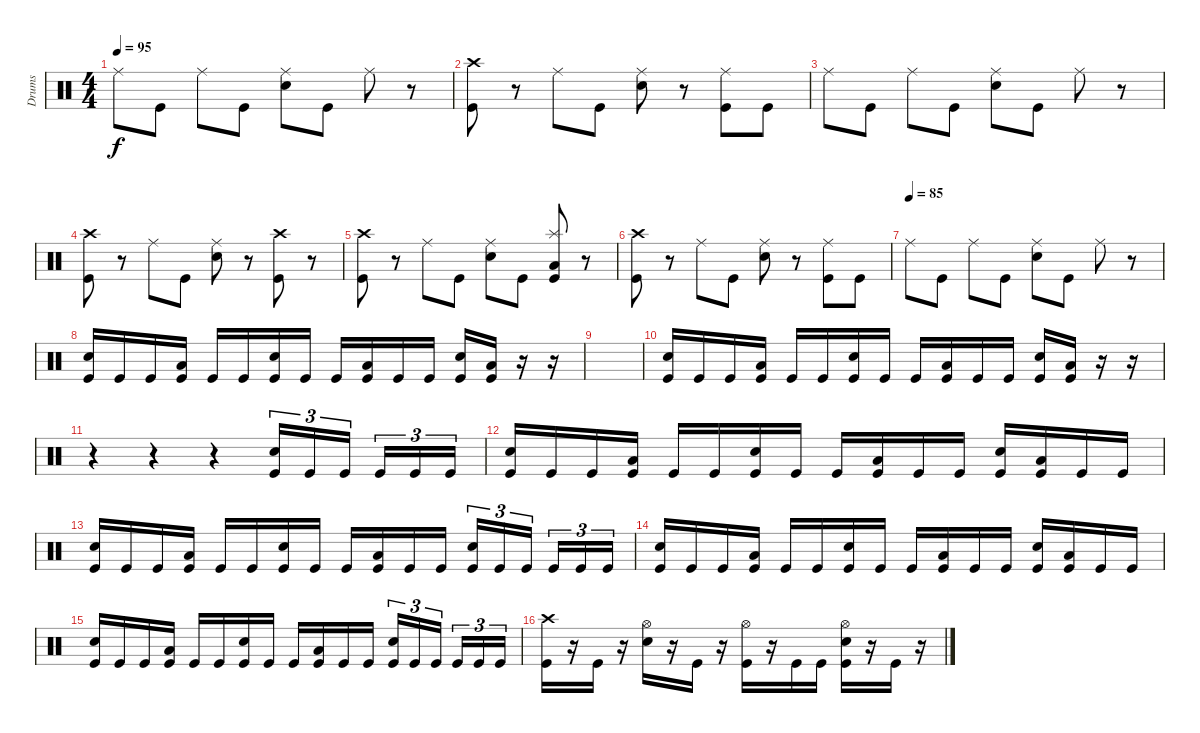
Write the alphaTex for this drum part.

\track ("Drums" "Drums") {instrument percussion}
\staff {score}
\articulation defaults
\ts (4 4)
\tempo 95
\clef neutral
\ks c "Ride (middle)".8{dy f} "Kick (hit)".8 "Ride (middle)".8 "Kick (hit)".8
("Ride (middle)" "Snare (hit) 2").8 "Kick (hit)".8 "Ride (middle)".8 r.8 |
("Crash high (hit)" "Kick (hit)").8 r.8 "Ride (middle)".8 "Kick (hit)".8 ("Ride (middle)" "Snare (hit) 2").8 r.8 ("Ride (middle)" "Kick (hit)").8 "Kick (hit)".8 |
"Ride (middle)".8 "Kick (hit)".8 "Ride (middle)".8 "Kick (hit)".8 ("Ride (middle)" "Snare (hit) 2").8 "Kick (hit)".8 "Ride (middle)".8 r.8 |
("Crash high (hit)" "Kick (hit)").8 r.8 "Ride (middle)".8 "Kick (hit)".8 ("Ride (middle)" "Snare (hit) 2").8 r.8 ("Crash high (hit)" "Kick (hit)").8 r.8 |
("Crash high (hit)" "Kick (hit)").8 r.8 "Ride (middle)".8 "Kick (hit)".8 ("Ride (middle)" "Snare (hit) 2").8 "Kick (hit)".8 ("Splash (hit)" "Low Floor Tom (hit)" "Kick (hit)").8 r.8 |
("Crash high (hit)" "Kick (hit)").8 r.8 "Ride (middle)".8 "Kick (hit)".8 ("Ride (middle)" "Snare (hit) 2").8 r.8 ("Ride (middle)" "Kick (hit)").8 "Kick (hit)".8 |
\tempo (85)
"Ride (middle)".8 "Kick (hit)".8 "Ride (middle)".8 "Kick (hit)".8 ("Ride (middle)" "Snare (hit) 2").8 "Kick (hit)".8 "Ride (middle)".8 r.8 |
("Snare (hit) 2" "Kick (hit)").16 "Kick (hit)".16 "Kick (hit)".16 ("Low Floor Tom (hit)" "Kick (hit)").16 "Kick (hit)".16 "Kick (hit)".16 ("Snare (hit) 2" "Kick (hit)").16 "Kick (hit)".16 "Kick (hit)".16 ("Low Floor Tom (hit)" "Kick (hit)").16 "Kick (hit)".16 "Kick (hit)".16 ("Snare (hit) 2" "Kick (hit)").16 ("Low Floor Tom (hit)" "Kick (hit)").16 r.16 r.16 |
|
("Snare (hit) 2" "Kick (hit)").16 "Kick (hit)".16 "Kick (hit)".16 ("Low Floor Tom (hit)" "Kick (hit)").16 "Kick (hit)".16 "Kick (hit)".16 ("Snare (hit) 2" "Kick (hit)").16 "Kick (hit)".16 "Kick (hit)".16 ("Low Floor Tom (hit)" "Kick (hit)").16 "Kick (hit)".16 "Kick (hit)".16 ("Snare (hit) 2" "Kick (hit)").16 ("Low Floor Tom (hit)" "Kick (hit)").16 r.16 r.16 |
r.4 r.4 r.4 ("Snare (hit) 2" "Kick (hit)").16{tu (3 2)} "Kick (hit)".16{tu (3 2)} "Kick (hit)".16{tu (3 2)} "Kick (hit)".16{tu (3 2)} "Kick (hit)".16{tu (3 2)} "Kick (hit)".16{tu (3 2)} |
("Snare (hit) 2" "Kick (hit)").16 "Kick (hit)".16 "Kick (hit)".16 ("Low Floor Tom (hit)" "Kick (hit)").16 "Kick (hit)".16 "Kick (hit)".16 ("Snare (hit) 2" "Kick (hit)").16 "Kick (hit)".16 "Kick (hit)".16 ("Low Floor Tom (hit)" "Kick (hit)").16 "Kick (hit)".16 "Kick (hit)".16 ("Snare (hit) 2" "Kick (hit)").16 ("Low Floor Tom (hit)" "Kick (hit)").16 "Kick (hit)".16 "Kick (hit)".16 |
("Snare (hit) 2" "Kick (hit)").16 "Kick (hit)".16 "Kick (hit)".16 ("Low Floor Tom (hit)" "Kick (hit)").16 "Kick (hit)".16 "Kick (hit)".16 ("Snare (hit) 2" "Kick (hit)").16 "Kick (hit)".16 "Kick (hit)".16 ("Low Floor Tom (hit)" "Kick (hit)").16 "Kick (hit)".16 "Kick (hit)".16 ("Snare (hit) 2" "Kick (hit)").16{tu (3 2)} "Kick (hit)".16{tu (3 2)} "Kick (hit)".16{tu (3 2)} "Kick (hit)".16{tu (3 2)} "Kick (hit)".16{tu (3 2)} "Kick (hit)".16{tu (3 2)} |
("Snare (hit) 2" "Kick (hit)").16 "Kick (hit)".16 "Kick (hit)".16 ("Low Floor Tom (hit)" "Kick (hit)").16 "Kick (hit)".16 "Kick (hit)".16 ("Snare (hit) 2" "Kick (hit)").16 "Kick (hit)".16 "Kick (hit)".16 ("Low Floor Tom (hit)" "Kick (hit)").16 "Kick (hit)".16 "Kick (hit)".16 ("Snare (hit) 2" "Kick (hit)").16 ("Low Floor Tom (hit)" "Kick (hit)").16 "Kick (hit)".16 "Kick (hit)".16 |
("Snare (hit) 2" "Kick (hit)").16 "Kick (hit)".16 "Kick (hit)".16 ("Low Floor Tom (hit)" "Kick (hit)").16 "Kick (hit)".16 "Kick (hit)".16 ("Snare (hit) 2" "Kick (hit)").16 "Kick (hit)".16 "Kick (hit)".16 ("Low Floor Tom (hit)" "Kick (hit)").16 "Kick (hit)".16 "Kick (hit)".16 ("Snare (hit) 2" "Kick (hit)").16{tu (3 2)} "Kick (hit)".16{tu (3 2)} "Kick (hit)".16{tu (3 2)} "Kick (hit)".16{tu (3 2)} "Kick (hit)".16{tu (3 2)} "Kick (hit)".16{tu (3 2)} |
("Crash high (hit)" "Kick (hit)").16 r.16 "Kick (hit)".16 r.16 ("Hi-Hat (open)" "Snare (hit) 2").16 r.16 "Kick (hit)".16 r.16 ("Hi-Hat (open)" "Kick (hit)").16 r.16 "Kick (hit)".16 "Kick (hit)".16 ("Hi-Hat (open)" "Snare (hit) 2" "Kick (hit)").16 r.16 "Kick (hit)".16 r.16
